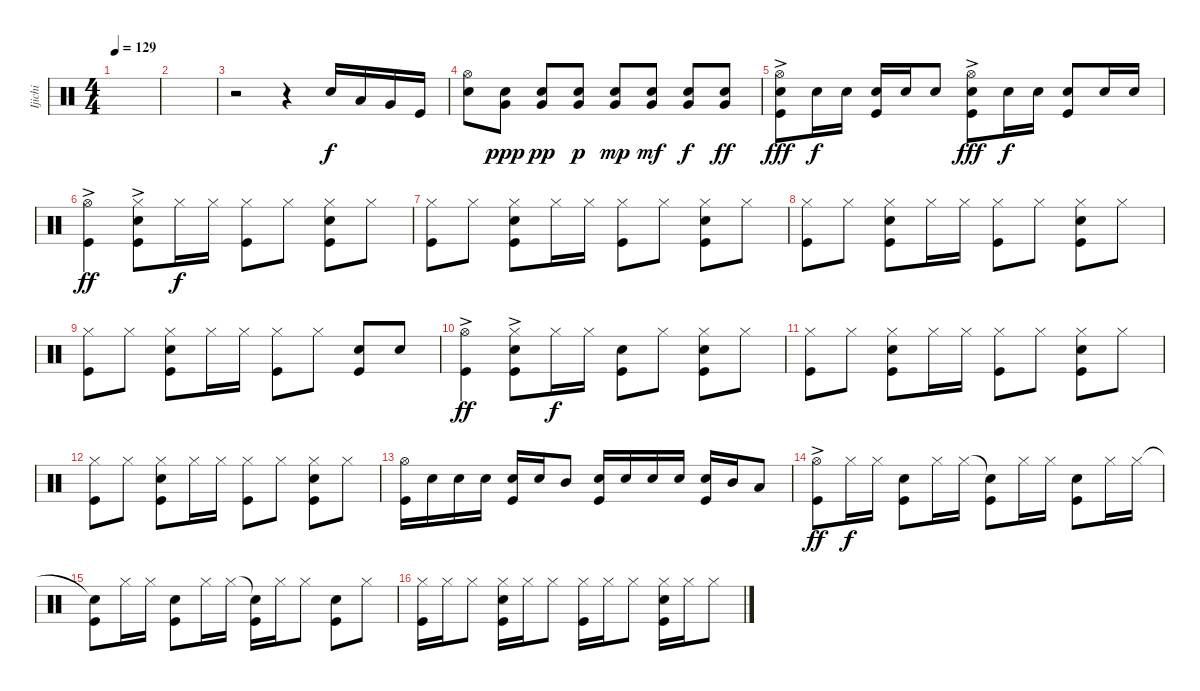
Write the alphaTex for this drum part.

\track ("Ijichi" "Ijichi") {instrument percussion}
\staff {score}
\articulation defaults
\ts (4 4)
\tempo 129
\clef neutral
\ks c
|
|
r.2 r.4 "Snare (hit) 2".16 "Low Tom (hit)".16 "Very Low Tom (hit)".16 "Kick (hit)".16 |
("Hi-Hat (open)" "Snare (hit) 2").8 ("Snare (hit) 2" "Very Low Tom (hit)").8{dy ppp} ("Snare (hit) 2" "Very Low Tom (hit)").8{dy pp} ("Snare (hit) 2" "Very Low Tom (hit)").8{dy p} ("Snare (hit) 2" "Very Low Tom (hit)").8{dy mp} ("Snare (hit) 2" "Very Low Tom (hit)").8{dy mf} ("Snare (hit) 2" "Very Low Tom (hit)").8{dy f} ("Snare (hit) 2" "Very Low Tom (hit)").8{dy ff} |
("Hi-Hat (open)"{ac} "Snare (hit) 2" "Kick (hit)").8{dy fff} "Snare (hit) 2".16{dy f} "Snare (hit) 2".16 ("Snare (hit) 2" "Kick (hit)").16 "Snare (hit) 2".16 "Snare (hit) 2".8 ("Hi-Hat (open)"{ac} "Snare (hit) 2" "Kick (hit)").8{dy fff} "Snare (hit) 2".16{dy f} "Snare (hit) 2".16 ("Snare (hit) 2" "Kick (hit)").8 "Snare (hit) 2".16 "Snare (hit) 2".16 |
("Hi-Hat (open)"{ac} "Kick (hit)").4{dy ff} ("Hi-Hat (closed)"{ac} "Snare (hit) 2" "Kick (hit)").8 "Hi-Hat (closed)".16{dy f} "Hi-Hat (closed)".16 ("Hi-Hat (closed)" "Kick (hit)").8 "Hi-Hat (closed)".8 ("Hi-Hat (closed)" "Snare (hit) 2" "Kick (hit)").8 "Hi-Hat (closed)".8 |
("Hi-Hat (closed)" "Kick (hit)").8 "Hi-Hat (closed)".8 ("Hi-Hat (closed)" "Snare (hit) 2" "Kick (hit)").8 "Hi-Hat (closed)".16 "Hi-Hat (closed)".16 ("Hi-Hat (closed)" "Kick (hit)").8 "Hi-Hat (closed)".8 ("Hi-Hat (closed)" "Snare (hit) 2" "Kick (hit)").8 "Hi-Hat (closed)".8 |
("Hi-Hat (closed)" "Kick (hit)").8 "Hi-Hat (closed)".8 ("Hi-Hat (closed)" "Snare (hit) 2" "Kick (hit)").8 "Hi-Hat (closed)".16 "Hi-Hat (closed)".16 ("Hi-Hat (closed)" "Kick (hit)").8 "Hi-Hat (closed)".8 ("Hi-Hat (closed)" "Snare (hit) 2" "Kick (hit)").8 "Hi-Hat (closed)".8 |
("Hi-Hat (closed)" "Kick (hit)").8 "Hi-Hat (closed)".8 ("Hi-Hat (closed)" "Snare (hit) 2" "Kick (hit)").8 "Hi-Hat (closed)".16 "Hi-Hat (closed)".16 ("Hi-Hat (closed)" "Kick (hit)").8 "Hi-Hat (closed)".8 ("Snare (hit) 2" "Kick (hit)").8 "Snare (hit) 2".8 |
("Hi-Hat (open)"{ac} "Kick (hit)").4{dy ff} ("Hi-Hat (closed)"{ac} "Snare (hit) 2" "Kick (hit)").8 "Hi-Hat (closed)".16{dy f} "Hi-Hat (closed)".16 ("Snare (hit)" "Kick (hit)").8 "Hi-Hat (closed)".8 ("Hi-Hat (closed)" "Snare (hit) 2" "Kick (hit)").8 "Hi-Hat (closed)".8 |
("Hi-Hat (closed)" "Kick (hit)").8 "Hi-Hat (closed)".8 ("Hi-Hat (closed)" "Snare (hit) 2" "Kick (hit)").8 "Hi-Hat (closed)".16 "Hi-Hat (closed)".16 ("Hi-Hat (closed)" "Kick (hit)").8 "Hi-Hat (closed)".8 ("Hi-Hat (closed)" "Snare (hit) 2" "Kick (hit)").8 "Hi-Hat (closed)".8 |
("Hi-Hat (closed)" "Kick (hit)").8 "Hi-Hat (closed)".8 ("Hi-Hat (closed)" "Snare (hit) 2" "Kick (hit)").8 "Hi-Hat (closed)".16 "Hi-Hat (closed)".16 ("Hi-Hat (closed)" "Kick (hit)").8 "Hi-Hat (closed)".8 ("Hi-Hat (closed)" "Snare (hit) 2" "Kick (hit)").8 "Hi-Hat (closed)".8 |
("Hi-Hat (open)" "Kick (hit)").16 "Snare (hit) 2".16 "Snare (hit) 2".16 "Snare (hit) 2".16 ("Snare (hit) 2" "Kick (hit)").16 "Snare (hit) 2".16 "Mid Tom (hit)".8 ("Snare (hit) 2" "Kick (hit)").16 "Snare (hit) 2".16 "Snare (hit) 2".16 "Snare (hit) 2".16 ("Snare (hit) 2" "Kick (hit)").16 "Mid Tom (hit)".16 "Low Tom (hit)".8 |
("Hi-Hat (open)"{ac} "Kick (hit)").8{dy ff} "Hi-Hat (closed)".16{dy f} "Hi-Hat (closed)".16 ("Snare (hit) 2" "Kick (hit)").8 "Hi-Hat (closed)".16 "Hi-Hat (closed)".16 ("Snare (hit)"{t} "Kick (hit)").8 "Hi-Hat (closed)".16 "Hi-Hat (closed)".16 ("Snare (hit) 2" "Kick (hit)").8 "Hi-Hat (closed)".16 "Hi-Hat (closed)".16 |
("Snare (hit)"{t} "Kick (hit)").8 "Hi-Hat (closed)".16 "Hi-Hat (closed)".16 ("Snare (hit) 2" "Kick (hit)").8 "Hi-Hat (closed)".16 "Hi-Hat (closed)".16 ("Snare (hit)"{t} "Kick (hit)").16 "Hi-Hat (closed)".16 "Hi-Hat (closed)".8 ("Snare (hit) 2" "Kick (hit)").8 "Hi-Hat (closed)".8 |
("Hi-Hat (closed)" "Kick (hit)").16 "Hi-Hat (closed)".16 "Hi-Hat (closed)".8 ("Hi-Hat (closed)" "Snare (hit) 2" "Kick (hit)").16 "Hi-Hat (closed)".16 "Hi-Hat (closed)".8 ("Hi-Hat (closed)" "Kick (hit)").16 "Hi-Hat (closed)".16 "Hi-Hat (closed)".8 ("Hi-Hat (closed)" "Snare (hit) 2" "Kick (hit)").16 "Hi-Hat (closed)".16 "Hi-Hat (closed)".8
